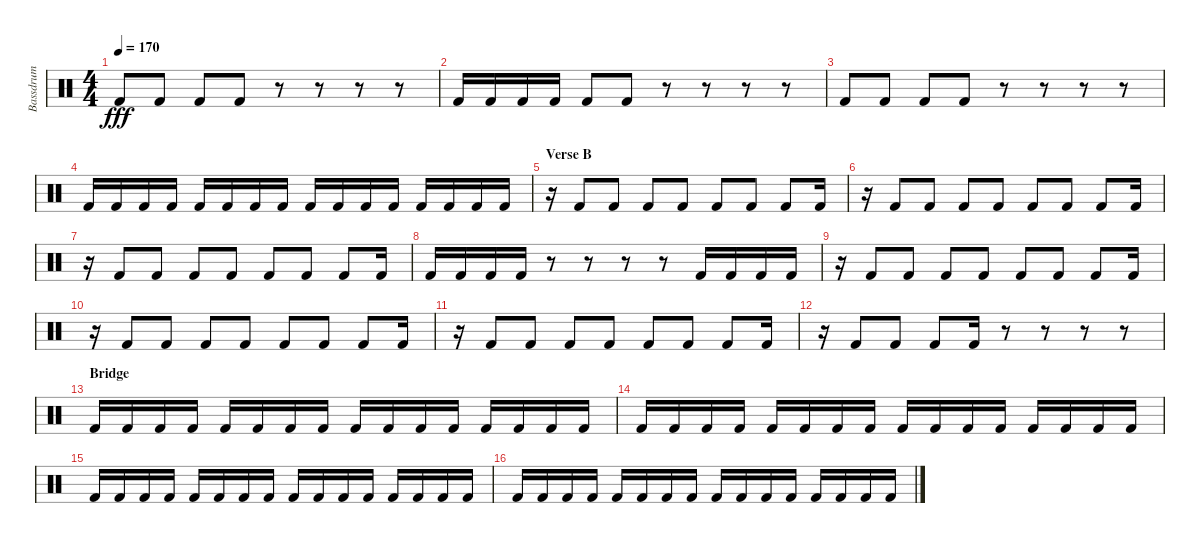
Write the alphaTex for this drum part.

\track ("Bassdrum" "Bassdrum") {instrument percussion}
\staff {score}
\articulation defaults
\ts (4 4)
\tempo 170
\clef neutral
\ks c "Kick (hit) 2".8{dy fff} "Kick (hit) 2".8 "Kick (hit) 2".8 "Kick (hit) 2".8
r.8 r.8 r.8 r.8 |
"Kick (hit) 2".16 "Kick (hit) 2".16 "Kick (hit) 2".16 "Kick (hit) 2".16 "Kick (hit) 2".8 "Kick (hit) 2".8 r.8 r.8 r.8 r.8 |
"Kick (hit) 2".8 "Kick (hit) 2".8 "Kick (hit) 2".8 "Kick (hit) 2".8 r.8 r.8 r.8 r.8 |
"Kick (hit) 2".16 "Kick (hit) 2".16 "Kick (hit) 2".16 "Kick (hit) 2".16 "Kick (hit) 2".16 "Kick (hit) 2".16 "Kick (hit) 2".16 "Kick (hit) 2".16 "Kick (hit) 2".16 "Kick (hit) 2".16 "Kick (hit) 2".16 "Kick (hit) 2".16 "Kick (hit) 2".16 "Kick (hit) 2".16 "Kick (hit) 2".16 "Kick (hit) 2".16 |
\section ("" "Verse B")
r.16 "Kick (hit) 2".8 "Kick (hit) 2".8 "Kick (hit) 2".8 "Kick (hit) 2".8 "Kick (hit) 2".8 "Kick (hit) 2".8 "Kick (hit) 2".8 "Kick (hit) 2".16 |
r.16 "Kick (hit) 2".8 "Kick (hit) 2".8 "Kick (hit) 2".8 "Kick (hit) 2".8 "Kick (hit) 2".8 "Kick (hit) 2".8 "Kick (hit) 2".8 "Kick (hit) 2".16 |
r.16 "Kick (hit) 2".8 "Kick (hit) 2".8 "Kick (hit) 2".8 "Kick (hit) 2".8 "Kick (hit) 2".8 "Kick (hit) 2".8 "Kick (hit) 2".8 "Kick (hit) 2".16 |
"Kick (hit) 2".16 "Kick (hit) 2".16 "Kick (hit) 2".16 "Kick (hit) 2".16 r.8 r.8 r.8 r.8 "Kick (hit) 2".16 "Kick (hit) 2".16 "Kick (hit) 2".16 "Kick (hit) 2".16 |
r.16 "Kick (hit) 2".8 "Kick (hit) 2".8 "Kick (hit) 2".8 "Kick (hit) 2".8 "Kick (hit) 2".8 "Kick (hit) 2".8 "Kick (hit) 2".8 "Kick (hit) 2".16 |
r.16 "Kick (hit) 2".8 "Kick (hit) 2".8 "Kick (hit) 2".8 "Kick (hit) 2".8 "Kick (hit) 2".8 "Kick (hit) 2".8 "Kick (hit) 2".8 "Kick (hit) 2".16 |
r.16 "Kick (hit) 2".8 "Kick (hit) 2".8 "Kick (hit) 2".8 "Kick (hit) 2".8 "Kick (hit) 2".8 "Kick (hit) 2".8 "Kick (hit) 2".8 "Kick (hit) 2".16 |
r.16 "Kick (hit) 2".8 "Kick (hit) 2".8 "Kick (hit) 2".8 "Kick (hit) 2".16 r.8 r.8 r.8 r.8 |
\section ("" "Bridge")
"Kick (hit) 2".16 "Kick (hit) 2".16 "Kick (hit) 2".16 "Kick (hit) 2".16 "Kick (hit) 2".16 "Kick (hit) 2".16 "Kick (hit) 2".16 "Kick (hit) 2".16 "Kick (hit) 2".16 "Kick (hit) 2".16 "Kick (hit) 2".16 "Kick (hit) 2".16 "Kick (hit) 2".16 "Kick (hit) 2".16 "Kick (hit) 2".16 "Kick (hit) 2".16 |
"Kick (hit) 2".16 "Kick (hit) 2".16 "Kick (hit) 2".16 "Kick (hit) 2".16 "Kick (hit) 2".16 "Kick (hit) 2".16 "Kick (hit) 2".16 "Kick (hit) 2".16 "Kick (hit) 2".16 "Kick (hit) 2".16 "Kick (hit) 2".16 "Kick (hit) 2".16 "Kick (hit) 2".16 "Kick (hit) 2".16 "Kick (hit) 2".16 "Kick (hit) 2".16 |
"Kick (hit) 2".16 "Kick (hit) 2".16 "Kick (hit) 2".16 "Kick (hit) 2".16 "Kick (hit) 2".16 "Kick (hit) 2".16 "Kick (hit) 2".16 "Kick (hit) 2".16 "Kick (hit) 2".16 "Kick (hit) 2".16 "Kick (hit) 2".16 "Kick (hit) 2".16 "Kick (hit) 2".16 "Kick (hit) 2".16 "Kick (hit) 2".16 "Kick (hit) 2".16 |
"Kick (hit) 2".16 "Kick (hit) 2".16 "Kick (hit) 2".16 "Kick (hit) 2".16 "Kick (hit) 2".16 "Kick (hit) 2".16 "Kick (hit) 2".16 "Kick (hit) 2".16 "Kick (hit) 2".16 "Kick (hit) 2".16 "Kick (hit) 2".16 "Kick (hit) 2".16 "Kick (hit) 2".16 "Kick (hit) 2".16 "Kick (hit) 2".16 "Kick (hit) 2".16
